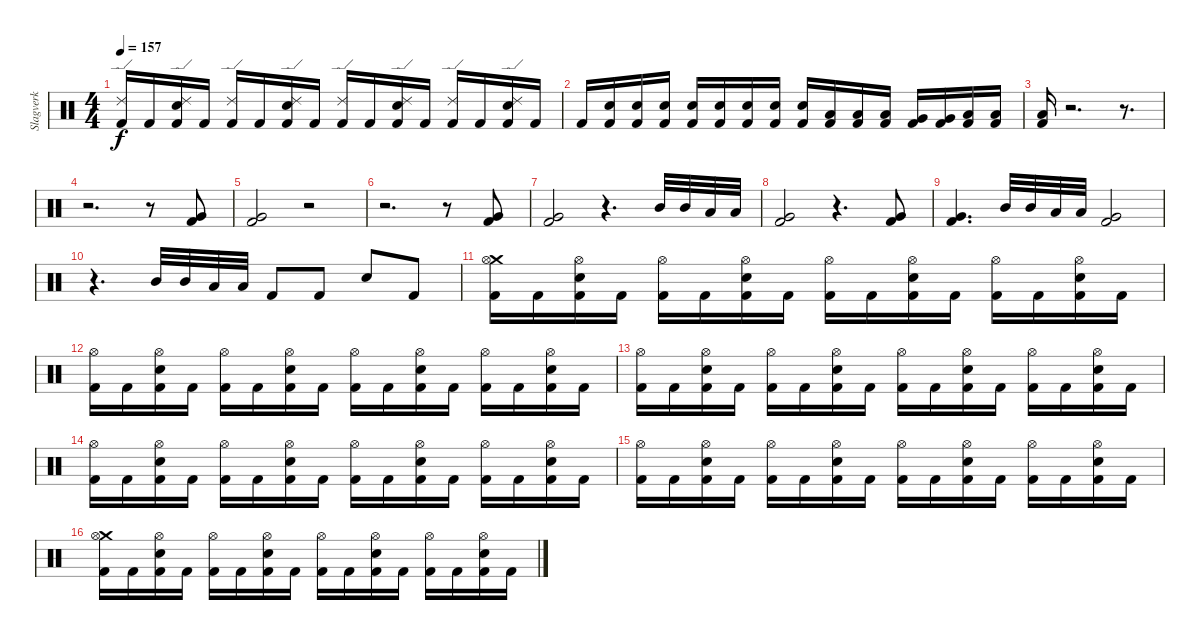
\track ("Slagverk" "Slagverk") {instrument percussion}
\staff {score}
\articulation defaults
\ts (4 4)
\tempo 157
\clef neutral
\ks c
("Ride (edge) 2" "Kick (hit) 2").16{dy f} "Kick (hit) 2".16 ("Snare (hit) 2" "Ride (edge) 2" "Kick (hit) 2").16 "Kick (hit) 2".16 ("Ride (edge) 2" "Kick (hit) 2").16 "Kick (hit) 2".16 ("Snare (hit) 2" "Ride (edge) 2" "Kick (hit) 2").16 "Kick (hit) 2".16 ("Ride (edge) 2" "Kick (hit) 2").16 "Kick (hit) 2".16 ("Snare (hit) 2" "Ride (edge) 2" "Kick (hit) 2").16 "Kick (hit) 2".16 ("Ride (edge) 2" "Kick (hit) 2").16 "Kick (hit) 2".16 ("Snare (hit) 2" "Ride (edge) 2" "Kick (hit) 2").16 "Kick (hit) 2".16 |
"Kick (hit) 2".16 ("Snare (hit) 2" "Kick (hit) 2").16 ("Snare (hit) 2" "Kick (hit) 2").16 ("Snare (hit) 2" "Kick (hit) 2").16 ("Snare (hit) 2" "Kick (hit) 2").16 ("Snare (hit) 2" "Kick (hit) 2").16 ("Snare (hit) 2" "Kick (hit) 2").16 ("Snare (hit) 2" "Kick (hit) 2").16 ("Snare (hit) 2" "Kick (hit) 2").16 ("Low Tom (hit)" "Kick (hit) 2").16 ("Low Tom (hit)" "Kick (hit) 2").16 ("Low Tom (hit)" "Kick (hit) 2").16 ("Very Low Tom (hit)" "Kick (hit) 2").16 ("Very Low Tom (hit)" "Kick (hit) 2").16 ("Low Floor Tom (hit)" "Kick (hit) 2").16 ("Low Floor Tom (hit)" "Kick (hit) 2").16 |
("Low Floor Tom (hit)" "Kick (hit) 2").16 r.2{d} r.8{d} |
r.2{d} r.8 ("Very Low Tom (hit)" "Kick (hit) 2").8 |
("Very Low Tom (hit)" "Kick (hit) 2").2 r.2 |
r.2{d} r.8 ("Very Low Tom (hit)" "Kick (hit) 2").8 |
("Very Low Tom (hit)" "Kick (hit) 2").2 r.4{d} "Mid Tom (hit)".32 "Mid Tom (hit)".32 "Low Tom (hit)".32 "Low Tom (hit)".32 |
("Very Low Tom (hit)" "Kick (hit) 2").2 r.4{d} ("Very Low Tom (hit)" "Kick (hit) 2").8 |
("Kick (hit) 2" "Very Low Tom (hit)").4{d} "Mid Tom (hit)".32 "Mid Tom (hit)".32 "Low Tom (hit)".32 "Low Tom (hit)".32 ("Very Low Tom (hit)" "Kick (hit) 2").2 |
r.4{d} "Mid Tom (hit)".32 "Mid Tom (hit)".32 "Low Tom (hit)".32 "Low Tom (hit)".32 "Kick (hit) 2".8 "Kick (hit) 2".8 "Electric Snare (hit)".8 "Kick (hit) 2".8 |
("Crash medium (hit)" "Hi-Hat (open)" "Kick (hit) 2").16 "Kick (hit) 2".16 ("Snare (hit) 2" "Hi-Hat (open)" "Kick (hit) 2").16 "Kick (hit) 2".16 ("Hi-Hat (open)" "Kick (hit) 2").16 "Kick (hit) 2".16 ("Snare (hit) 2" "Hi-Hat (open)" "Kick (hit) 2").16 "Kick (hit) 2".16 ("Hi-Hat (open)" "Kick (hit) 2").16 "Kick (hit) 2".16 ("Snare (hit) 2" "Hi-Hat (open)" "Kick (hit) 2").16 "Kick (hit) 2".16 ("Hi-Hat (open)" "Kick (hit) 2").16 "Kick (hit) 2".16 ("Snare (hit) 2" "Hi-Hat (open)" "Kick (hit) 2").16 "Kick (hit) 2".16 |
("Hi-Hat (open)" "Kick (hit) 2").16 "Kick (hit) 2".16 ("Snare (hit) 2" "Hi-Hat (open)" "Kick (hit) 2").16 "Kick (hit) 2".16 ("Hi-Hat (open)" "Kick (hit) 2").16 "Kick (hit) 2".16 ("Snare (hit) 2" "Hi-Hat (open)" "Kick (hit) 2").16 "Kick (hit) 2".16 ("Hi-Hat (open)" "Kick (hit) 2").16 "Kick (hit) 2".16 ("Snare (hit) 2" "Hi-Hat (open)" "Kick (hit) 2").16 "Kick (hit) 2".16 ("Hi-Hat (open)" "Kick (hit) 2").16 "Kick (hit) 2".16 ("Snare (hit) 2" "Hi-Hat (open)" "Kick (hit) 2").16 "Kick (hit) 2".16 |
("Hi-Hat (open)" "Kick (hit) 2").16 "Kick (hit) 2".16 ("Snare (hit) 2" "Hi-Hat (open)" "Kick (hit) 2").16 "Kick (hit) 2".16 ("Hi-Hat (open)" "Kick (hit) 2").16 "Kick (hit) 2".16 ("Snare (hit) 2" "Hi-Hat (open)" "Kick (hit) 2").16 "Kick (hit) 2".16 ("Hi-Hat (open)" "Kick (hit) 2").16 "Kick (hit) 2".16 ("Snare (hit) 2" "Hi-Hat (open)" "Kick (hit) 2").16 "Kick (hit) 2".16 ("Hi-Hat (open)" "Kick (hit) 2").16 "Kick (hit) 2".16 ("Snare (hit) 2" "Hi-Hat (open)" "Kick (hit) 2").16 "Kick (hit) 2".16 |
("Hi-Hat (open)" "Kick (hit) 2").16 "Kick (hit) 2".16 ("Snare (hit) 2" "Hi-Hat (open)" "Kick (hit) 2").16 "Kick (hit) 2".16 ("Hi-Hat (open)" "Kick (hit) 2").16 "Kick (hit) 2".16 ("Snare (hit) 2" "Hi-Hat (open)" "Kick (hit) 2").16 "Kick (hit) 2".16 ("Hi-Hat (open)" "Kick (hit) 2").16 "Kick (hit) 2".16 ("Snare (hit) 2" "Hi-Hat (open)" "Kick (hit) 2").16 "Kick (hit) 2".16 ("Hi-Hat (open)" "Kick (hit) 2").16 "Kick (hit) 2".16 ("Snare (hit) 2" "Hi-Hat (open)" "Kick (hit) 2").16 "Kick (hit) 2".16 |
("Hi-Hat (open)" "Kick (hit) 2").16 "Kick (hit) 2".16 ("Snare (hit) 2" "Hi-Hat (open)" "Kick (hit) 2").16 "Kick (hit) 2".16 ("Hi-Hat (open)" "Kick (hit) 2").16 "Kick (hit) 2".16 ("Snare (hit) 2" "Hi-Hat (open)" "Kick (hit) 2").16 "Kick (hit) 2".16 ("Hi-Hat (open)" "Kick (hit) 2").16 "Kick (hit) 2".16 ("Snare (hit) 2" "Hi-Hat (open)" "Kick (hit) 2").16 "Kick (hit) 2".16 ("Hi-Hat (open)" "Kick (hit) 2").16 "Kick (hit) 2".16 ("Snare (hit) 2" "Hi-Hat (open)" "Kick (hit) 2").16 "Kick (hit) 2".16 |
("Crash medium (hit)" "Hi-Hat (open)" "Kick (hit) 2").16 "Kick (hit) 2".16 ("Snare (hit) 2" "Hi-Hat (open)" "Kick (hit) 2").16 "Kick (hit) 2".16 ("Hi-Hat (open)" "Kick (hit) 2").16 "Kick (hit) 2".16 ("Snare (hit) 2" "Hi-Hat (open)" "Kick (hit) 2").16 "Kick (hit) 2".16 ("Hi-Hat (open)" "Kick (hit) 2").16 "Kick (hit) 2".16 ("Snare (hit) 2" "Hi-Hat (open)" "Kick (hit) 2").16 "Kick (hit) 2".16 ("Hi-Hat (open)" "Kick (hit) 2").16 "Kick (hit) 2".16 ("Snare (hit) 2" "Hi-Hat (open)" "Kick (hit) 2").16 "Kick (hit) 2".16
